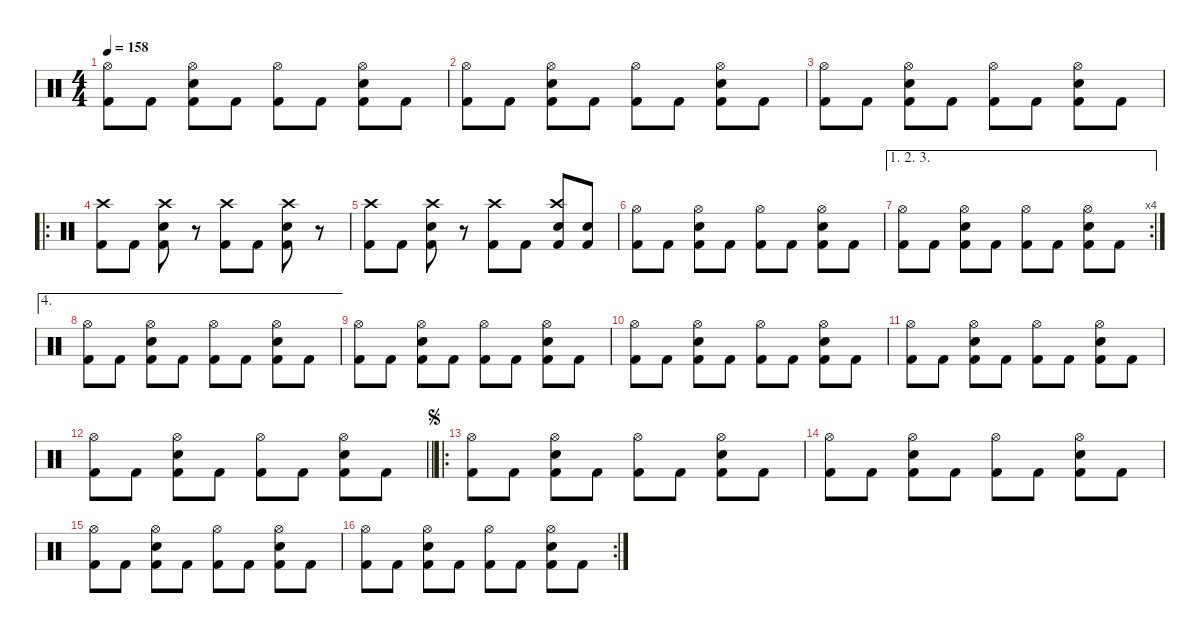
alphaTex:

\defaultSystemsLayout 4
\hideDynamics
\bracketExtendMode nobrackets
\singleTrackTrackNamePolicy hidden
\multiTrackTrackNamePolicy hidden
\firstSystemTrackNameMode fullname
\firstSystemTrackNameOrientation horizontal
\otherSystemsTrackNameOrientation horizontal
\track ("Drums" "drm.") {instrument percussion}
\staff {score}
\articulation defaults
\ts (4 4)
\tempo 158
\clef neutral
\ks c
("Hi-Hat (open)" "Kick (hit) 2").8{dy f beam Down} "Kick (hit) 2".8{beam Down} ("Hi-Hat (open)" "Snare (hit) 2" "Kick (hit) 2").8{beam Down} "Kick (hit) 2".8{beam Down} ("Hi-Hat (open)" "Kick (hit) 2").8{beam Down} "Kick (hit) 2".8{beam Down} ("Hi-Hat (open)" "Kick (hit) 2" "Snare (hit) 2").8{beam Down} "Kick (hit) 2".8{beam Down} |
("Hi-Hat (open)" "Kick (hit) 2").8{beam Down} "Kick (hit) 2".8{beam Down} ("Hi-Hat (open)" "Snare (hit) 2" "Kick (hit) 2").8{beam Down} "Kick (hit) 2".8{beam Down} ("Hi-Hat (open)" "Kick (hit) 2").8{beam Down} "Kick (hit) 2".8{beam Down} ("Hi-Hat (open)" "Kick (hit) 2" "Snare (hit) 2").8{beam Down} "Kick (hit) 2".8{beam Down} |
("Hi-Hat (open)" "Kick (hit) 2").8{beam Down} "Kick (hit) 2".8{beam Down} ("Hi-Hat (open)" "Snare (hit) 2" "Kick (hit) 2").8{beam Down} "Kick (hit) 2".8{beam Down} ("Hi-Hat (open)" "Kick (hit) 2").8{beam Down} "Kick (hit) 2".8{beam Down} ("Hi-Hat (open)" "Kick (hit) 2" "Snare (hit) 2").8{beam Down} "Kick (hit) 2".8{beam Down} |
\ro
("Crash high (hit)" "Kick (hit) 2").8{beam Down} "Kick (hit) 2".8{beam Down} ("Crash high (hit)" "Snare (hit) 2" "Kick (hit) 2").8{beam Down} r.8{beam Down} ("Crash high (hit)" "Kick (hit) 2").8{beam Down} "Kick (hit) 2".8{beam Down} ("Crash high (hit)" "Snare (hit) 2" "Kick (hit) 2").8{beam Down} r.8{beam Down} |
("Crash high (hit)" "Kick (hit) 2").8{beam Down} "Kick (hit) 2".8{beam Down} ("Crash high (hit)" "Snare (hit) 2" "Kick (hit) 2").8{beam Down} r.8{beam Down} ("Crash high (hit)" "Kick (hit) 2").8{beam Down} "Kick (hit) 2".8{beam Down} ("Crash high (hit)" "Snare (hit) 2" "Kick (hit) 2").8{beam Up} ("Snare (hit) 2" "Kick (hit) 2").8{beam Up} |
("Hi-Hat (open)" "Kick (hit) 2").8{beam Down} "Kick (hit) 2".8{beam Down} ("Hi-Hat (open)" "Snare (hit) 2" "Kick (hit) 2").8{beam Down} "Kick (hit) 2".8{beam Down} ("Hi-Hat (open)" "Kick (hit) 2").8{beam Down} "Kick (hit) 2".8{beam Down} ("Hi-Hat (open)" "Kick (hit) 2" "Snare (hit) 2").8{beam Down} "Kick (hit) 2".8{beam Down} |
\ae (1 2 3)
\rc 4
("Hi-Hat (open)" "Kick (hit) 2").8{beam Down} "Kick (hit) 2".8{beam Down} ("Hi-Hat (open)" "Snare (hit) 2" "Kick (hit) 2").8{beam Down} "Kick (hit) 2".8{beam Down} ("Hi-Hat (open)" "Kick (hit) 2").8{beam Down} "Kick (hit) 2".8{beam Down} ("Hi-Hat (open)" "Kick (hit) 2" "Snare (hit) 2").8{beam Down} "Kick (hit) 2".8{beam Down} |
\ae 4
("Hi-Hat (open)" "Kick (hit) 2").8{beam Down} "Kick (hit) 2".8{beam Down} ("Hi-Hat (open)" "Snare (hit) 2" "Kick (hit) 2").8{beam Down} "Kick (hit) 2".8{beam Down} ("Hi-Hat (open)" "Kick (hit) 2").8{beam Down} "Kick (hit) 2".8{beam Down} ("Hi-Hat (open)" "Kick (hit) 2" "Snare (hit) 2").8{beam Down} "Kick (hit) 2".8{beam Down} |
("Hi-Hat (open)" "Kick (hit) 2").8{beam Down} "Kick (hit) 2".8{beam Down} ("Hi-Hat (open)" "Snare (hit) 2" "Kick (hit) 2").8{beam Down} "Kick (hit) 2".8{beam Down} ("Hi-Hat (open)" "Kick (hit) 2").8{beam Down} "Kick (hit) 2".8{beam Down} ("Hi-Hat (open)" "Kick (hit) 2" "Snare (hit) 2").8{beam Down} "Kick (hit) 2".8{beam Down} |
("Hi-Hat (open)" "Kick (hit) 2").8{beam Down} "Kick (hit) 2".8{beam Down} ("Hi-Hat (open)" "Snare (hit) 2" "Kick (hit) 2").8{beam Down} "Kick (hit) 2".8{beam Down} ("Hi-Hat (open)" "Kick (hit) 2").8{beam Down} "Kick (hit) 2".8{beam Down} ("Hi-Hat (open)" "Kick (hit) 2" "Snare (hit) 2").8{beam Down} "Kick (hit) 2".8{beam Down} |
("Hi-Hat (open)" "Kick (hit) 2").8{beam Down} "Kick (hit) 2".8{beam Down} ("Hi-Hat (open)" "Snare (hit) 2" "Kick (hit) 2").8{beam Down} "Kick (hit) 2".8{beam Down} ("Hi-Hat (open)" "Kick (hit) 2").8{beam Down} "Kick (hit) 2".8{beam Down} ("Hi-Hat (open)" "Kick (hit) 2" "Snare (hit) 2").8{beam Down} "Kick (hit) 2".8{beam Down} |
\barLineRight lightlight
("Hi-Hat (open)" "Kick (hit) 2").8{beam Down} "Kick (hit) 2".8{beam Down} ("Hi-Hat (open)" "Snare (hit) 2" "Kick (hit) 2").8{beam Down} "Kick (hit) 2".8{beam Down} ("Hi-Hat (open)" "Kick (hit) 2").8{beam Down} "Kick (hit) 2".8{beam Down} ("Hi-Hat (open)" "Kick (hit) 2" "Snare (hit) 2").8{beam Down} "Kick (hit) 2".8{beam Down} |
\ro
\jump segno
("Hi-Hat (open)" "Kick (hit) 2").8{beam Down} "Kick (hit) 2".8{beam Down} ("Hi-Hat (open)" "Snare (hit) 2" "Kick (hit) 2").8{beam Down} "Kick (hit) 2".8{beam Down} ("Hi-Hat (open)" "Kick (hit) 2").8{beam Down} "Kick (hit) 2".8{beam Down} ("Hi-Hat (open)" "Kick (hit) 2" "Snare (hit) 2").8{beam Down} "Kick (hit) 2".8{beam Down} |
("Hi-Hat (open)" "Kick (hit) 2").8{beam Down} "Kick (hit) 2".8{beam Down} ("Hi-Hat (open)" "Snare (hit) 2" "Kick (hit) 2").8{beam Down} "Kick (hit) 2".8{beam Down} ("Hi-Hat (open)" "Kick (hit) 2").8{beam Down} "Kick (hit) 2".8{beam Down} ("Hi-Hat (open)" "Kick (hit) 2" "Snare (hit) 2").8{beam Down} "Kick (hit) 2".8{beam Down} |
("Hi-Hat (open)" "Kick (hit) 2").8{beam Down} "Kick (hit) 2".8{beam Down} ("Hi-Hat (open)" "Snare (hit) 2" "Kick (hit) 2").8{beam Down} "Kick (hit) 2".8{beam Down} ("Hi-Hat (open)" "Kick (hit) 2").8{beam Down} "Kick (hit) 2".8{beam Down} ("Hi-Hat (open)" "Kick (hit) 2" "Snare (hit) 2").8{beam Down} "Kick (hit) 2".8{beam Down} |
\rc 2
("Hi-Hat (open)" "Kick (hit) 2").8{beam Down} "Kick (hit) 2".8{beam Down} ("Hi-Hat (open)" "Snare (hit) 2" "Kick (hit) 2").8{beam Down} "Kick (hit) 2".8{beam Down} ("Hi-Hat (open)" "Kick (hit) 2").8{beam Down} "Kick (hit) 2".8{beam Down} ("Hi-Hat (open)" "Kick (hit) 2" "Snare (hit) 2").8{beam Down} "Kick (hit) 2".8{beam Down}
